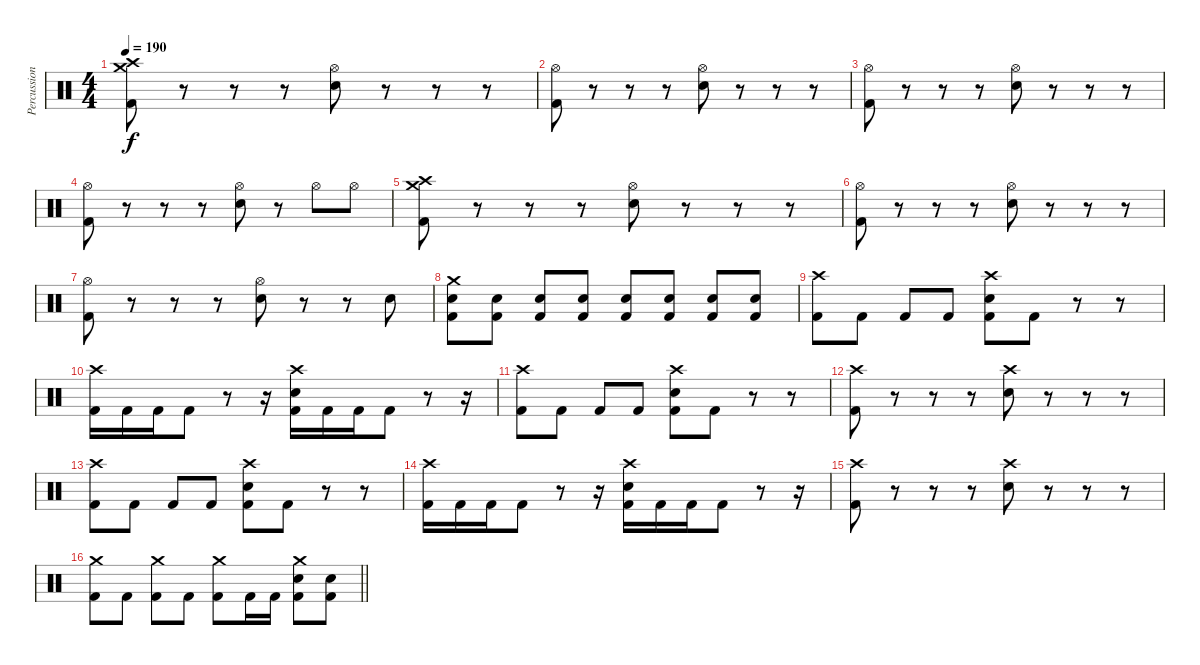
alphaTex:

\track ("Percussion" "Percussion") {instrument percussion}
\staff {score}
\articulation defaults
\ts (4 4)
\tempo 190
\clef neutral
\ks c
("Crash high (hit)" "Crash medium (hit)" "Kick (hit) 2").8{dy f} r.8 r.8 r.8 ("Hi-Hat (open)" "Snare (hit) 2").8 r.8 r.8 r.8 |
("Hi-Hat (open)" "Kick (hit) 2").8 r.8 r.8 r.8 ("Hi-Hat (open)" "Snare (hit) 2").8 r.8 r.8 r.8 |
("Hi-Hat (open)" "Kick (hit) 2").8 r.8 r.8 r.8 ("Hi-Hat (open)" "Snare (hit) 2").8 r.8 r.8 r.8 |
("Hi-Hat (open)" "Kick (hit) 2").8 r.8 r.8 r.8 ("Hi-Hat (open)" "Snare (hit) 2").8 r.8 "Hi-Hat (open)".8 "Hi-Hat (open)".8 |
("Crash high (hit)" "Crash medium (hit)" "Kick (hit) 2").8 r.8 r.8 r.8 ("Hi-Hat (open)" "Snare (hit) 2").8 r.8 r.8 r.8 |
("Hi-Hat (open)" "Kick (hit) 2").8 r.8 r.8 r.8 ("Hi-Hat (open)" "Snare (hit) 2").8 r.8 r.8 r.8 |
("Hi-Hat (open)" "Kick (hit) 2").8 r.8 r.8 r.8 ("Hi-Hat (open)" "Snare (hit) 2").8 r.8 r.8 "Snare (hit) 2".8 |
("Crash medium (hit)" "Snare (hit) 2" "Kick (hit) 2").8 ("Snare (hit) 2" "Kick (hit) 2").8 ("Snare (hit) 2" "Kick (hit) 2").8 ("Snare (hit) 2" "Kick (hit) 2").8 ("Snare (hit) 2" "Kick (hit) 2").8 ("Snare (hit) 2" "Kick (hit) 2").8 ("Snare (hit) 2" "Kick (hit) 2").8 ("Snare (hit) 2" "Kick (hit) 2").8 |
("Crash high (hit)" "Kick (hit) 2").8 "Kick (hit) 2".8 "Kick (hit) 2".8 "Kick (hit) 2".8 ("Crash high (hit)" "Snare (hit) 2" "Kick (hit) 2").8 "Kick (hit) 2".8 r.8 r.8 |
("Crash high (hit)" "Kick (hit) 2").16 "Kick (hit) 2".16 "Kick (hit) 2".16 "Kick (hit) 2".8 r.8 r.16 ("Crash high (hit)" "Snare (hit) 2" "Kick (hit) 2").16 "Kick (hit) 2".16 "Kick (hit) 2".16 "Kick (hit) 2".8 r.8 r.16 |
("Crash high (hit)" "Kick (hit) 2").8 "Kick (hit) 2".8 "Kick (hit) 2".8 "Kick (hit) 2".8 ("Crash high (hit)" "Snare (hit) 2" "Kick (hit) 2").8 "Kick (hit) 2".8 r.8 r.8 |
("Crash high (hit)" "Kick (hit) 2").8 r.8 r.8 r.8 ("Crash high (hit)" "Snare (hit) 2").8 r.8 r.8 r.8 |
("Crash high (hit)" "Kick (hit) 2").8 "Kick (hit) 2".8 "Kick (hit) 2".8 "Kick (hit) 2".8 ("Crash high (hit)" "Snare (hit) 2" "Kick (hit) 2").8 "Kick (hit) 2".8 r.8 r.8 |
("Crash high (hit)" "Kick (hit) 2").16 "Kick (hit) 2".16 "Kick (hit) 2".16 "Kick (hit) 2".8 r.8 r.16 ("Crash high (hit)" "Snare (hit) 2" "Kick (hit) 2").16 "Kick (hit) 2".16 "Kick (hit) 2".16 "Kick (hit) 2".8 r.8 r.16 |
("Crash high (hit)" "Kick (hit) 2").8 r.8 r.8 r.8 ("Crash high (hit)" "Snare (hit) 2").8 r.8 r.8 r.8 |
\barLineRight lightlight
("Crash medium (hit)" "Kick (hit) 2").8 "Kick (hit) 2".8 ("Crash medium (hit)" "Kick (hit) 2").8 "Kick (hit) 2".8 ("Crash medium (hit)" "Kick (hit) 2").8 "Kick (hit) 2".16 "Kick (hit) 2".16 ("Crash medium (hit)" "Snare (hit) 2" "Kick (hit) 2").8 ("Snare (hit) 2" "Kick (hit) 2").8
